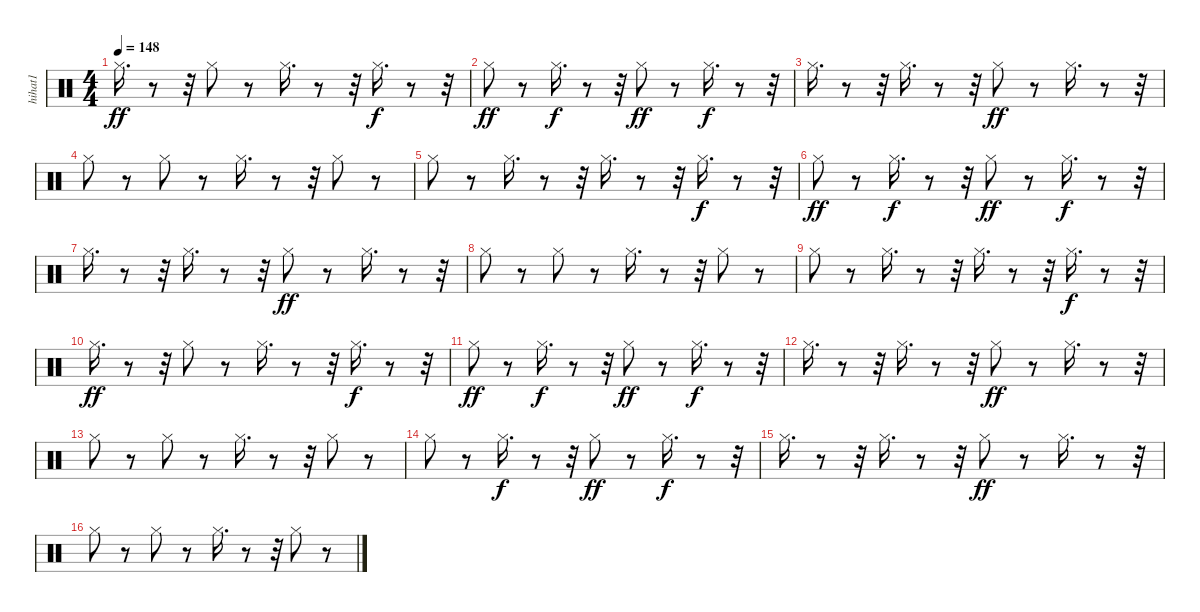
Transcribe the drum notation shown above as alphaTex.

\track ("hihat1              " "hihat1    ") {instrument percussion}
\staff {score}
\articulation defaults
\ts (4 4)
\tempo 148
\clef neutral
\ks c "Hi-Hat (closed)".16{d dy ff}
r.8 r.32 "Hi-Hat (closed)".8 r.8 "Hi-Hat (closed)".16{d} r.8 r.32 "Hi-Hat (closed)".16{d dy f} r.8 r.32 |
"Hi-Hat (closed)".8{dy ff} r.8 "Hi-Hat (closed)".16{d dy f} r.8 r.32 "Hi-Hat (closed)".8{dy ff} r.8 "Hi-Hat (closed)".16{d dy f} r.8 r.32 |
"Hi-Hat (closed)".16{d} r.8 r.32 "Hi-Hat (closed)".16{d} r.8 r.32 "Hi-Hat (closed)".8{dy ff} r.8 "Hi-Hat (closed)".16{d} r.8 r.32 |
"Hi-Hat (closed)".8 r.8 "Hi-Hat (closed)".8 r.8 "Hi-Hat (closed)".16{d} r.8 r.32 "Hi-Hat (closed)".8 r.8 |
"Hi-Hat (closed)".8 r.8 "Hi-Hat (closed)".16{d} r.8 r.32 "Hi-Hat (closed)".16{d} r.8 r.32 "Hi-Hat (closed)".16{d dy f} r.8 r.32 |
"Hi-Hat (closed)".8{dy ff} r.8 "Hi-Hat (closed)".16{d dy f} r.8 r.32 "Hi-Hat (closed)".8{dy ff} r.8 "Hi-Hat (closed)".16{d dy f} r.8 r.32 |
"Hi-Hat (closed)".16{d} r.8 r.32 "Hi-Hat (closed)".16{d} r.8 r.32 "Hi-Hat (closed)".8{dy ff} r.8 "Hi-Hat (closed)".16{d} r.8 r.32 |
"Hi-Hat (closed)".8 r.8 "Hi-Hat (closed)".8 r.8 "Hi-Hat (closed)".16{d} r.8 r.32 "Hi-Hat (closed)".8 r.8 |
"Hi-Hat (closed)".8 r.8 "Hi-Hat (closed)".16{d} r.8 r.32 "Hi-Hat (closed)".16{d} r.8 r.32 "Hi-Hat (closed)".16{d dy f} r.8 r.32 |
"Hi-Hat (closed)".16{d dy ff} r.8 r.32 "Hi-Hat (closed)".8 r.8 "Hi-Hat (closed)".16{d} r.8 r.32 "Hi-Hat (closed)".16{d dy f} r.8 r.32 |
"Hi-Hat (closed)".8{dy ff} r.8 "Hi-Hat (closed)".16{d dy f} r.8 r.32 "Hi-Hat (closed)".8{dy ff} r.8 "Hi-Hat (closed)".16{d dy f} r.8 r.32 |
"Hi-Hat (closed)".16{d} r.8 r.32 "Hi-Hat (closed)".16{d} r.8 r.32 "Hi-Hat (closed)".8{dy ff} r.8 "Hi-Hat (closed)".16{d} r.8 r.32 |
"Hi-Hat (closed)".8 r.8 "Hi-Hat (closed)".8 r.8 "Hi-Hat (closed)".16{d} r.8 r.32 "Hi-Hat (closed)".8 r.8 |
"Hi-Hat (closed)".8 r.8 "Hi-Hat (closed)".16{d dy f} r.8 r.32 "Hi-Hat (closed)".8{dy ff} r.8 "Hi-Hat (closed)".16{d dy f} r.8 r.32 |
"Hi-Hat (closed)".16{d} r.8 r.32 "Hi-Hat (closed)".16{d} r.8 r.32 "Hi-Hat (closed)".8{dy ff} r.8 "Hi-Hat (closed)".16{d} r.8 r.32 |
"Hi-Hat (closed)".8 r.8 "Hi-Hat (closed)".8 r.8 "Hi-Hat (closed)".16{d} r.8 r.32 "Hi-Hat (closed)".8 r.8
